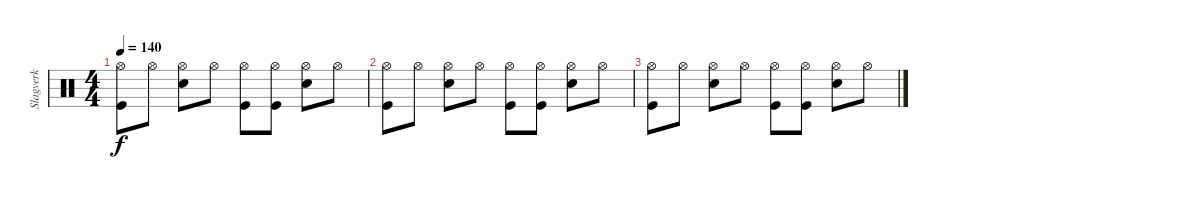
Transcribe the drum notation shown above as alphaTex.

\track ("Slagverk" "Slagverk") {instrument percussion}
\staff {score}
\articulation defaults
\ts (4 4)
\tempo 140
\clef neutral
\ks c
("Hi-Hat (open)" "Kick (hit)").8{dy f} "Hi-Hat (open)".8 ("Hi-Hat (open)" "Snare (hit) 2").8 "Hi-Hat (open)".8 ("Hi-Hat (open)" "Kick (hit)").8 ("Hi-Hat (open)" "Kick (hit)").8 ("Hi-Hat (open)" "Snare (hit) 2").8 "Hi-Hat (open)".8 |
("Hi-Hat (open)" "Kick (hit)").8 "Hi-Hat (open)".8 ("Hi-Hat (open)" "Snare (hit) 2").8 "Hi-Hat (open)".8 ("Hi-Hat (open)" "Kick (hit)").8 ("Hi-Hat (open)" "Kick (hit)").8 ("Hi-Hat (open)" "Snare (hit) 2").8 "Hi-Hat (open)".8 |
("Hi-Hat (open)" "Kick (hit)").8 "Hi-Hat (open)".8 ("Hi-Hat (open)" "Snare (hit) 2").8 "Hi-Hat (open)".8 ("Hi-Hat (open)" "Kick (hit)").8 ("Hi-Hat (open)" "Kick (hit)").8 ("Hi-Hat (open)" "Snare (hit) 2").8 "Hi-Hat (open)".8
